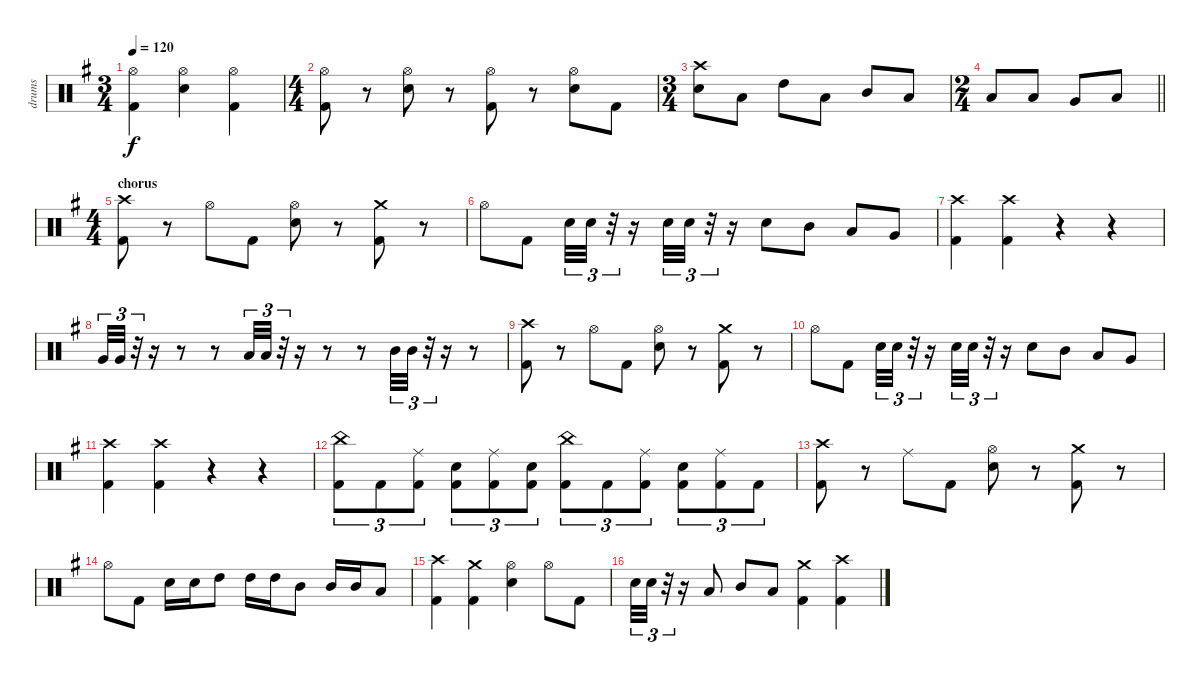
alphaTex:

\track ("drums" "drums") {instrument percussion}
\staff {score}
\articulation defaults
\ts (3 4)
\tempo 120
\clef neutral
\ks g
("Hi-Hat (open)" "Kick (hit) 2").4{dy f} ("Hi-Hat (open)" "Snare (hit) 2").4 ("Hi-Hat (open)" "Kick (hit) 2").4 |
\ts (4 4)
("Hi-Hat (open)" "Kick (hit) 2").8 r.8 ("Hi-Hat (open)" "Snare (hit) 2").8 r.8 ("Hi-Hat (open)" "Kick (hit) 2").8 r.8 ("Hi-Hat (open)" "Snare (hit) 2").8 "Kick (hit) 2".8 |
\ts (3 4)
("Crash high (hit)" "Snare (hit) 2").8 "Low Floor Tom (hit)".8 "High Tom (hit)".8 "Low Floor Tom (hit)".8 "Mid Tom (hit)".8 "Low Floor Tom (hit)".8 |
\ts (2 4)
\barLineRight lightlight "Low Tom (hit)".8 "Low Floor Tom (hit)".8 "Very Low Tom (hit)".8 "Low Floor Tom (hit)".8
|
\ts (4 4)
\section ("" "chorus")
("Crash high (hit)" "Kick (hit) 2").8 r.8 "Hi-Hat (open)".8 "Kick (hit) 2".8 ("Hi-Hat (open)" "Snare (hit) 2").8 r.8 ("Crash medium (hit)" "Kick (hit) 2").8 r.8 |
"Hi-Hat (open)".8 "Kick (hit) 2".8 "Snare (hit) 2".32{tu (3 2)} "Snare (hit) 2".32{tu (3 2)} r.32{tu (3 2)} r.16 "Snare (hit) 2".32{tu (3 2)} "Snare (hit) 2".32{tu (3 2)} r.32{tu (3 2)} r.16 "Snare (hit) 2".8 "Mid Tom (hit)".8 "Low Tom (hit)".8 "Very Low Tom (hit)".8 |
("Crash high (hit)" "Kick (hit) 2").4 ("Crash high (hit)" "Kick (hit) 2").4 r.4 r.4 |
"Very Low Tom (hit)".32{tu (3 2)} "Very Low Tom (hit)".32{tu (3 2)} r.32{tu (3 2)} r.16 r.8 r.8 "Low Tom (hit)".32{tu (3 2)} "Low Tom (hit)".32{tu (3 2)} r.32{tu (3 2)} r.16 r.8 r.8 "Mid Tom (hit)".32{tu (3 2)} "Mid Tom (hit)".32{tu (3 2)} r.32{tu (3 2)} r.16 r.8 |
("Crash high (hit)" "Kick (hit) 2").8 r.8 "Hi-Hat (open)".8 "Kick (hit) 2".8 ("Hi-Hat (open)" "Snare (hit) 2").8 r.8 ("Crash medium (hit)" "Kick (hit) 2").8 r.8 |
"Hi-Hat (open)".8 "Kick (hit) 2".8 "Snare (hit) 2".32{tu (3 2)} "Snare (hit) 2".32{tu (3 2)} r.32{tu (3 2)} r.16 "Snare (hit) 2".32{tu (3 2)} "Snare (hit) 2".32{tu (3 2)} r.32{tu (3 2)} r.16 "Snare (hit) 2".8 "Mid Tom (hit)".8 "Low Tom (hit)".8 "Very Low Tom (hit)".8 |
("Crash high (hit)" "Kick (hit) 2").4 ("Crash high (hit)" "Kick (hit) 2").4 r.4 r.4 |
("China (hit)" "Kick (hit) 2").8{tu (3 2)} "Kick (hit) 2".8{tu (3 2)} ("Ride (middle)" "Kick (hit) 2").8{tu (3 2)} ("Snare (hit) 2" "Kick (hit) 2").8{tu (3 2)} ("Ride (middle)" "Kick (hit) 2").8{tu (3 2)} ("Snare (hit) 2" "Kick (hit) 2").8{tu (3 2)} ("China (hit)" "Kick (hit) 2").8{tu (3 2)} "Kick (hit) 2".8{tu (3 2)} ("Ride (middle)" "Kick (hit) 2").8{tu (3 2)} ("Snare (hit) 2" "Kick (hit) 2").8{tu (3 2)} ("Ride (middle)" "Kick (hit) 2").8{tu (3 2)} "Kick (hit) 2".8{tu (3 2)} |
("Crash high (hit)" "Kick (hit) 2").8 r.8 "Ride (middle)".8 "Kick (hit) 2".8 ("Hi-Hat (open)" "Snare (hit) 2").8 r.8 ("Crash medium (hit)" "Kick (hit) 2").8 r.8 |
"Hi-Hat (open)".8 "Kick (hit) 2".8 "Snare (hit) 2".16 "Snare (hit) 2".16 "High Tom (hit)".8 "High Tom (hit)".16 "High Tom (hit)".16 "Mid Tom (hit)".8 "Mid Tom (hit)".16 "Mid Tom (hit)".16 "Low Tom (hit)".8 |
("Crash high (hit)" "Kick (hit) 2").4 ("Crash medium (hit)" "Kick (hit) 2").4 ("Hi-Hat (open)" "Snare (hit) 2").4 "Hi-Hat (open)".8 "Kick (hit) 2".8 |
"Snare (hit) 2".32{tu (3 2)} "Snare (hit) 2".32{tu (3 2)} r.32{tu (3 2)} r.16 "Low Floor Tom (hit)".8 "Mid Tom (hit)".8 "Low Floor Tom (hit)".8 ("Crash medium (hit)" "Kick (hit) 2").4 ("Crash high (hit)" "Kick (hit) 2").4
